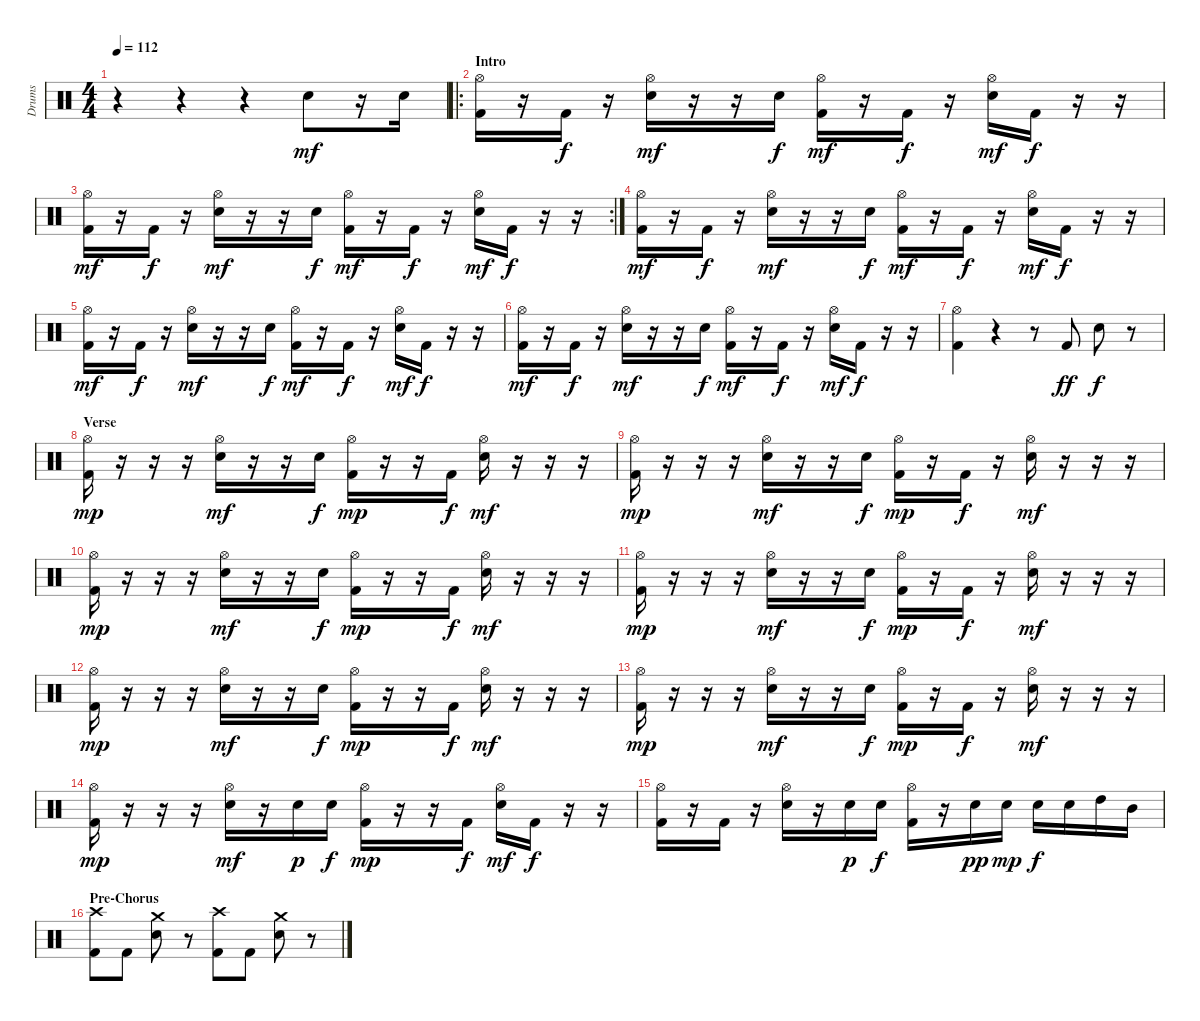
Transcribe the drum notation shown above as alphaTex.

\track ("Drums" "Drums") {instrument percussion}
\staff {score}
\articulation defaults
\ts (4 4)
\tempo 112
\clef neutral
\ks c
r.4{dy mf} r.4 r.4 "Snare (hit) 2".8 r.16 "Snare (hit) 2".16 |
\ro
\section ("" "Intro")
("Hi-Hat (open)" "Kick (hit) 2").16 r.16 "Kick (hit) 2".16{dy f} r.16 ("Hi-Hat (open)" "Snare (hit) 2").16{dy mf} r.16 r.16 "Snare (hit) 2".16{dy f} ("Hi-Hat (open)" "Kick (hit) 2").16{dy mf} r.16 "Kick (hit) 2".16{dy f} r.16 ("Hi-Hat (open)" "Snare (hit) 2").16{dy mf} "Kick (hit) 2".16{dy f} r.16 r.16 |
\rc 2
("Hi-Hat (open)" "Kick (hit) 2").16{dy mf} r.16 "Kick (hit) 2".16{dy f} r.16 ("Hi-Hat (open)" "Snare (hit) 2").16{dy mf} r.16 r.16 "Snare (hit) 2".16{dy f} ("Hi-Hat (open)" "Kick (hit) 2").16{dy mf} r.16 "Kick (hit) 2".16{dy f} r.16 ("Hi-Hat (open)" "Snare (hit) 2").16{dy mf} "Kick (hit) 2".16{dy f} r.16 r.16 |
("Hi-Hat (open)" "Kick (hit) 2").16{dy mf} r.16 "Kick (hit) 2".16{dy f} r.16 ("Hi-Hat (open)" "Snare (hit) 2").16{dy mf} r.16 r.16 "Snare (hit) 2".16{dy f} ("Hi-Hat (open)" "Kick (hit) 2").16{dy mf} r.16 "Kick (hit) 2".16{dy f} r.16 ("Hi-Hat (open)" "Snare (hit) 2").16{dy mf} "Kick (hit) 2".16{dy f} r.16 r.16 |
("Hi-Hat (open)" "Kick (hit) 2").16{dy mf} r.16 "Kick (hit) 2".16{dy f} r.16 ("Hi-Hat (open)" "Snare (hit) 2").16{dy mf} r.16 r.16 "Snare (hit) 2".16{dy f} ("Hi-Hat (open)" "Kick (hit) 2").16{dy mf} r.16 "Kick (hit) 2".16{dy f} r.16 ("Hi-Hat (open)" "Snare (hit) 2").16{dy mf} "Kick (hit) 2".16{dy f} r.16 r.16 |
("Hi-Hat (open)" "Kick (hit) 2").16{dy mf} r.16 "Kick (hit) 2".16{dy f} r.16 ("Hi-Hat (open)" "Snare (hit) 2").16{dy mf} r.16 r.16 "Snare (hit) 2".16{dy f} ("Hi-Hat (open)" "Kick (hit) 2").16{dy mf} r.16 "Kick (hit) 2".16{dy f} r.16 ("Hi-Hat (open)" "Snare (hit) 2").16{dy mf} "Kick (hit) 2".16{dy f} r.16 r.16 |
("Hi-Hat (open)" "Kick (hit) 2").4 r.4 r.8 "Kick (hit) 2".8{dy ff} "Snare (hit) 2".8{dy f} r.8 |
\section ("" "Verse")
("Hi-Hat (open)" "Kick (hit) 2").16{dy mp} r.16 r.16 r.16 ("Hi-Hat (open)" "Snare (hit) 2").16{dy mf} r.16 r.16 "Snare (hit) 2".16{dy f} ("Hi-Hat (open)" "Kick (hit) 2").16{dy mp} r.16 r.16 "Kick (hit) 2".16{dy f} ("Hi-Hat (open)" "Snare (hit) 2").16{dy mf} r.16 r.16 r.16 |
("Hi-Hat (open)" "Kick (hit) 2").16{dy mp} r.16 r.16 r.16 ("Hi-Hat (open)" "Snare (hit) 2").16{dy mf} r.16 r.16 "Snare (hit) 2".16{dy f} ("Hi-Hat (open)" "Kick (hit) 2").16{dy mp} r.16 "Kick (hit) 2".16{dy f} r.16 ("Hi-Hat (open)" "Snare (hit) 2").16{dy mf} r.16 r.16 r.16 |
("Hi-Hat (open)" "Kick (hit) 2").16{dy mp} r.16 r.16 r.16 ("Hi-Hat (open)" "Snare (hit) 2").16{dy mf} r.16 r.16 "Snare (hit) 2".16{dy f} ("Hi-Hat (open)" "Kick (hit) 2").16{dy mp} r.16 r.16 "Kick (hit) 2".16{dy f} ("Hi-Hat (open)" "Snare (hit) 2").16{dy mf} r.16 r.16 r.16 |
("Hi-Hat (open)" "Kick (hit) 2").16{dy mp} r.16 r.16 r.16 ("Hi-Hat (open)" "Snare (hit) 2").16{dy mf} r.16 r.16 "Snare (hit) 2".16{dy f} ("Hi-Hat (open)" "Kick (hit) 2").16{dy mp} r.16 "Kick (hit) 2".16{dy f} r.16 ("Hi-Hat (open)" "Snare (hit) 2").16{dy mf} r.16 r.16 r.16 |
("Hi-Hat (open)" "Kick (hit) 2").16{dy mp} r.16 r.16 r.16 ("Hi-Hat (open)" "Snare (hit) 2").16{dy mf} r.16 r.16 "Snare (hit) 2".16{dy f} ("Hi-Hat (open)" "Kick (hit) 2").16{dy mp} r.16 r.16 "Kick (hit) 2".16{dy f} ("Hi-Hat (open)" "Snare (hit) 2").16{dy mf} r.16 r.16 r.16 |
("Hi-Hat (open)" "Kick (hit) 2").16{dy mp} r.16 r.16 r.16 ("Hi-Hat (open)" "Snare (hit) 2").16{dy mf} r.16 r.16 "Snare (hit) 2".16{dy f} ("Hi-Hat (open)" "Kick (hit) 2").16{dy mp} r.16 "Kick (hit) 2".16{dy f} r.16 ("Hi-Hat (open)" "Snare (hit) 2").16{dy mf} r.16 r.16 r.16 |
("Hi-Hat (open)" "Kick (hit) 2").16{dy mp} r.16 r.16 r.16 ("Hi-Hat (open)" "Snare (hit) 2").16{dy mf} r.16 "Snare (hit) 2".16{dy p} "Snare (hit) 2".16{dy f} ("Hi-Hat (open)" "Kick (hit) 2").16{dy mp} r.16 r.16 "Kick (hit) 2".16{dy f} ("Hi-Hat (open)" "Snare (hit) 2").16{dy mf} "Kick (hit) 2".16{dy f} r.16 r.16 |
("Hi-Hat (open)" "Kick (hit) 2").16 r.16 "Kick (hit) 2".16 r.16 ("Hi-Hat (open)" "Snare (hit) 2").16 r.16 "Snare (hit) 2".16{dy p} "Snare (hit) 2".16{dy f} ("Hi-Hat (open)" "Kick (hit) 2").16 r.16 "Snare (hit) 2".16{dy pp} "Snare (hit) 2".16{dy mp} "Snare (hit) 2".16{dy f} "Snare (hit) 2".16 "High Tom (hit)".16 "Mid Tom (hit)".16 |
\section ("" "Pre-Chorus")
("Crash high (hit)" "Kick (hit) 2").8 "Kick (hit) 2".8 ("Crash medium (hit)" "Snare (hit) 2").8 r.8 ("Crash high (hit)" "Kick (hit) 2").8 "Kick (hit) 2".8 ("Crash medium (hit)" "Snare (hit) 2").8 r.8
